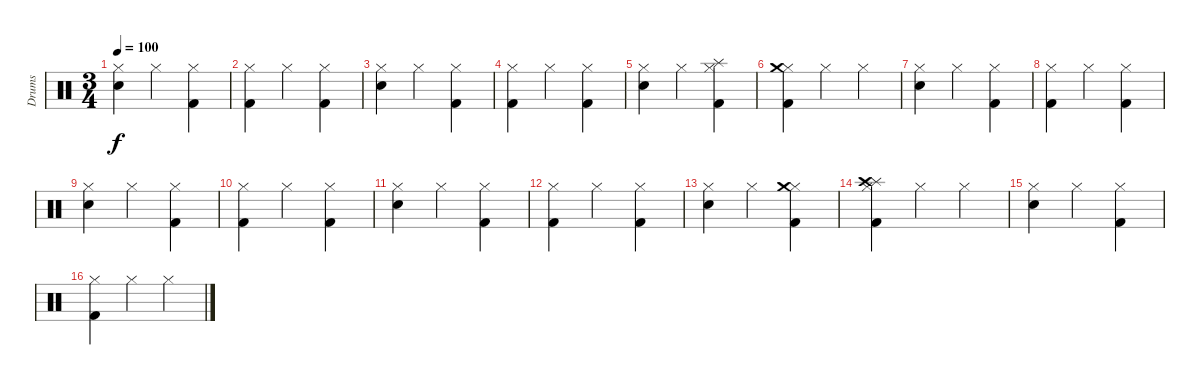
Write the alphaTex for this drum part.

\track ("Drums" "Drums") {instrument percussion}
\staff {score}
\articulation defaults
\ts (3 4)
\tempo 100
\clef neutral
\ks c
("Hi-Hat (closed)" "Electric Snare (hit)").4{dy f} "Hi-Hat (closed)".4 ("Hi-Hat (closed)" "Kick (hit) 2").4 |
("Hi-Hat (closed)" "Kick (hit) 2").4 "Hi-Hat (closed)".4 ("Hi-Hat (closed)" "Kick (hit) 2").4 |
("Hi-Hat (closed)" "Electric Snare (hit)").4 "Hi-Hat (closed)".4 ("Hi-Hat (closed)" "Kick (hit) 2").4 |
("Hi-Hat (closed)" "Kick (hit) 2").4 "Hi-Hat (closed)".4 ("Hi-Hat (closed)" "Kick (hit) 2").4 |
("Hi-Hat (closed)" "Electric Snare (hit)").4 "Hi-Hat (closed)".4 ("Hi-Hat (closed)" "Splash (hit)" "Kick (hit) 2").4 |
("Hi-Hat (closed)" "Crash medium (hit)" "Kick (hit) 2").4 "Hi-Hat (closed)".4 "Hi-Hat (closed)".4 |
("Hi-Hat (closed)" "Electric Snare (hit)").4 "Hi-Hat (closed)".4 ("Hi-Hat (closed)" "Kick (hit) 2").4 |
("Hi-Hat (closed)" "Kick (hit) 2").4 "Hi-Hat (closed)".4 ("Hi-Hat (closed)" "Kick (hit) 2").4 |
("Hi-Hat (closed)" "Electric Snare (hit)").4 "Hi-Hat (closed)".4 ("Hi-Hat (closed)" "Kick (hit) 2").4 |
("Hi-Hat (closed)" "Kick (hit) 2").4 "Hi-Hat (closed)".4 ("Hi-Hat (closed)" "Kick (hit) 2").4 |
("Hi-Hat (closed)" "Electric Snare (hit)").4 "Hi-Hat (closed)".4 ("Hi-Hat (closed)" "Kick (hit) 2").4 |
("Hi-Hat (closed)" "Kick (hit) 2").4 "Hi-Hat (closed)".4 ("Hi-Hat (closed)" "Kick (hit) 2").4 |
("Hi-Hat (closed)" "Electric Snare (hit)").4 "Hi-Hat (closed)".4 ("Hi-Hat (closed)" "Crash medium (hit)" "Kick (hit) 2").4 |
("Hi-Hat (closed)" "Splash (hit)" "Crash high (hit)" "Kick (hit) 2").4 "Hi-Hat (closed)".4 "Hi-Hat (closed)".4 |
("Hi-Hat (closed)" "Electric Snare (hit)").4 "Hi-Hat (closed)".4 ("Hi-Hat (closed)" "Kick (hit) 2").4 |
("Hi-Hat (closed)" "Kick (hit) 2").4 "Hi-Hat (closed)".4 "Hi-Hat (closed)".4
